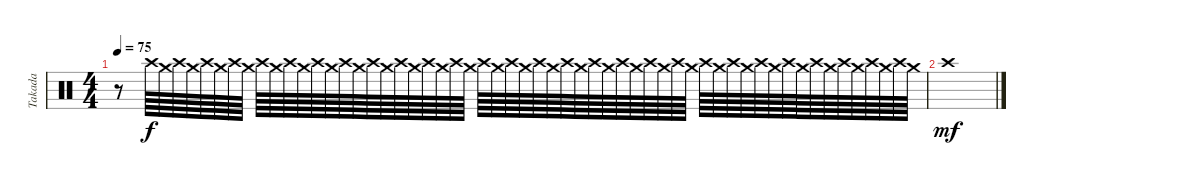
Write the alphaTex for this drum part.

\track ("Takada" "Takada") {instrument percussion}
\staff {score}
\articulation defaults
\ts (4 4)
\tempo 75
\clef neutral
\ks c
r.8{dy f volume 0} "Crash high (hit)".64{volume 9} "Crash medium (hit)".64 "Crash high (hit)".64 "Crash medium (hit)".64 "Crash high (hit)".64 "Crash medium (hit)".64 "Crash high (hit)".64 "Crash medium (hit)".64 "Crash high (hit)".64 "Crash medium (hit)".64 "Crash high (hit)".64 "Crash medium (hit)".64 "Crash high (hit)".64 "Crash medium (hit)".64 "Crash high (hit)".64 "Crash medium (hit)".64 "Crash high (hit)".64 "Crash medium (hit)".64 "Crash high (hit)".64 "Crash medium (hit)".64 "Crash high (hit)".64 "Crash medium (hit)".64 "Crash high (hit)".64 "Crash medium (hit)".64 "Crash high (hit)".64 "Crash medium (hit)".64 "Crash high (hit)".64 "Crash medium (hit)".64 "Crash high (hit)".64 "Crash medium (hit)".64 "Crash high (hit)".64 "Crash medium (hit)".64 "Crash high (hit)".64 "Crash medium (hit)".64 "Crash high (hit)".64 "Crash medium (hit)".64 "Crash high (hit)".64 "Crash medium (hit)".64 "Crash high (hit)".64 "Crash medium (hit)".64 "Crash high (hit)".64 "Crash medium (hit)".64 "Crash high (hit)".64 "Crash medium (hit)".64 "Crash high (hit)".64 "Crash medium (hit)".64 "Crash high (hit)".64 "Crash medium (hit)".64 "Crash high (hit)".64 "Crash medium (hit)".64 "Crash high (hit)".64 "Crash medium (hit)".64 "Crash high (hit)".64 "Crash medium (hit)".64 "Crash high (hit)".64 "Crash medium (hit)".64 |
"Crash high (hit)".1{dy mf}
